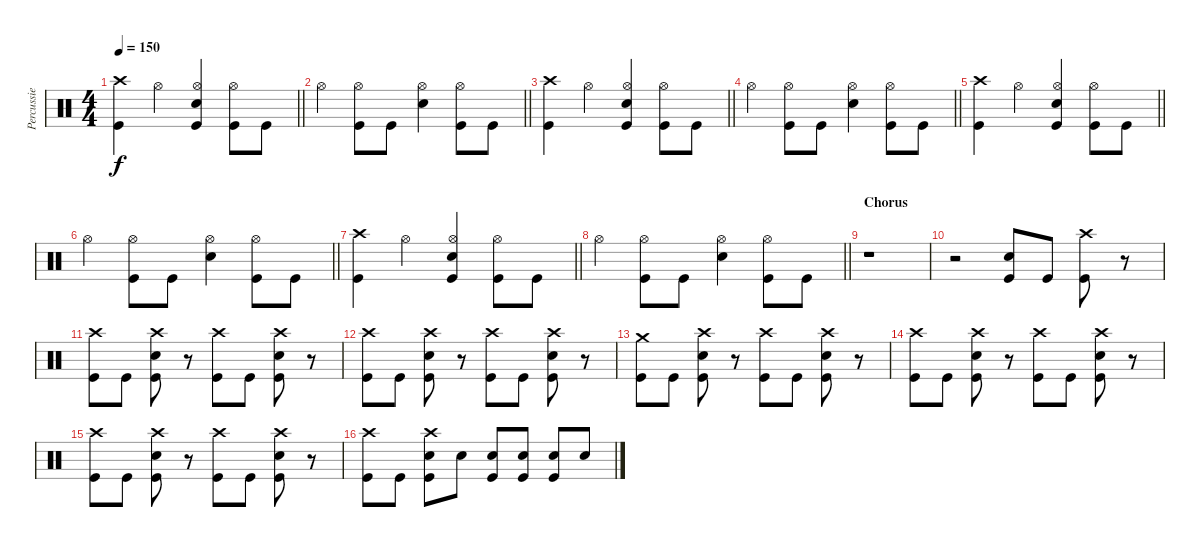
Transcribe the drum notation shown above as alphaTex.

\track ("Percussie" "Percussie") {instrument percussion}
\staff {score}
\articulation defaults
\ts (4 4)
\tempo 150
\clef neutral
\barLineRight lightlight
\ks c
("Crash high (hit)" "Kick (hit)").4{dy f} "Hi-Hat (open)".4 ("Hi-Hat (open)" "Snare (hit) 2" "Kick (hit)").4 ("Hi-Hat (open)" "Kick (hit)").8 "Kick (hit)".8 |
\barLineRight lightlight "Hi-Hat (open)".4
("Hi-Hat (open)" "Kick (hit)").8 "Kick (hit)".8 ("Hi-Hat (open)" "Snare (hit) 2").4 ("Hi-Hat (open)" "Kick (hit)").8 "Kick (hit)".8 |
\barLineRight lightlight
("Crash high (hit)" "Kick (hit)").4 "Hi-Hat (open)".4 ("Hi-Hat (open)" "Snare (hit) 2" "Kick (hit)").4 ("Hi-Hat (open)" "Kick (hit)").8 "Kick (hit)".8 |
\barLineRight lightlight "Hi-Hat (open)".4
("Hi-Hat (open)" "Kick (hit)").8 "Kick (hit)".8 ("Hi-Hat (open)" "Snare (hit) 2").4 ("Hi-Hat (open)" "Kick (hit)").8 "Kick (hit)".8 |
\barLineRight lightlight
("Crash high (hit)" "Kick (hit)").4 "Hi-Hat (open)".4 ("Hi-Hat (open)" "Snare (hit) 2" "Kick (hit)").4 ("Hi-Hat (open)" "Kick (hit)").8 "Kick (hit)".8 |
\barLineRight lightlight "Hi-Hat (open)".4
("Hi-Hat (open)" "Kick (hit)").8 "Kick (hit)".8 ("Hi-Hat (open)" "Snare (hit) 2").4 ("Hi-Hat (open)" "Kick (hit)").8 "Kick (hit)".8 |
\barLineRight lightlight
("Crash high (hit)" "Kick (hit)").4 "Hi-Hat (open)".4 ("Hi-Hat (open)" "Snare (hit) 2" "Kick (hit)").4 ("Hi-Hat (open)" "Kick (hit)").8 "Kick (hit)".8 |
\barLineRight lightlight "Hi-Hat (open)".4
("Hi-Hat (open)" "Kick (hit)").8 "Kick (hit)".8 ("Hi-Hat (open)" "Snare (hit) 2").4 ("Hi-Hat (open)" "Kick (hit)").8 "Kick (hit)".8 |
\section ("" "Chorus")
r.1 |
r.2 ("Snare (hit) 2" "Kick (hit)").8 "Kick (hit)".8 ("Crash high (hit)" "Kick (hit)").8 r.8 |
("Crash high (hit)" "Kick (hit)").8 "Kick (hit)".8 ("Crash high (hit)" "Snare (hit) 2" "Kick (hit)").8 r.8 ("Crash high (hit)" "Kick (hit)").8 "Kick (hit)".8 ("Crash high (hit)" "Snare (hit) 2" "Kick (hit)").8 r.8 |
("Crash high (hit)" "Kick (hit)").8 "Kick (hit)".8 ("Crash high (hit)" "Snare (hit) 2" "Kick (hit)").8 r.8 ("Crash high (hit)" "Kick (hit)").8 "Kick (hit)".8 ("Crash high (hit)" "Snare (hit) 2" "Kick (hit)").8 r.8 |
("Crash medium (hit)" "Kick (hit)").8 "Kick (hit)".8 ("Crash high (hit)" "Snare (hit) 2" "Kick (hit)").8 r.8 ("Crash high (hit)" "Kick (hit)").8 "Kick (hit)".8 ("Crash high (hit)" "Snare (hit) 2" "Kick (hit)").8 r.8 |
("Crash high (hit)" "Kick (hit)").8 "Kick (hit)".8 ("Crash high (hit)" "Snare (hit) 2" "Kick (hit)").8 r.8 ("Crash high (hit)" "Kick (hit)").8 "Kick (hit)".8 ("Crash high (hit)" "Snare (hit) 2" "Kick (hit)").8 r.8 |
("Crash high (hit)" "Kick (hit)").8 "Kick (hit)".8 ("Crash high (hit)" "Snare (hit) 2" "Kick (hit)").8 r.8 ("Crash high (hit)" "Kick (hit)").8 "Kick (hit)".8 ("Crash high (hit)" "Snare (hit) 2" "Kick (hit)").8 r.8 |
("Crash high (hit)" "Kick (hit)").8 "Kick (hit)".8 ("Crash high (hit)" "Snare (hit) 2" "Kick (hit)").8 "Snare (hit) 2".8 ("Snare (hit) 2" "Kick (hit)").8 ("Snare (hit) 2" "Kick (hit)").8 ("Snare (hit) 2" "Kick (hit)").8 "Snare (hit) 2".8
